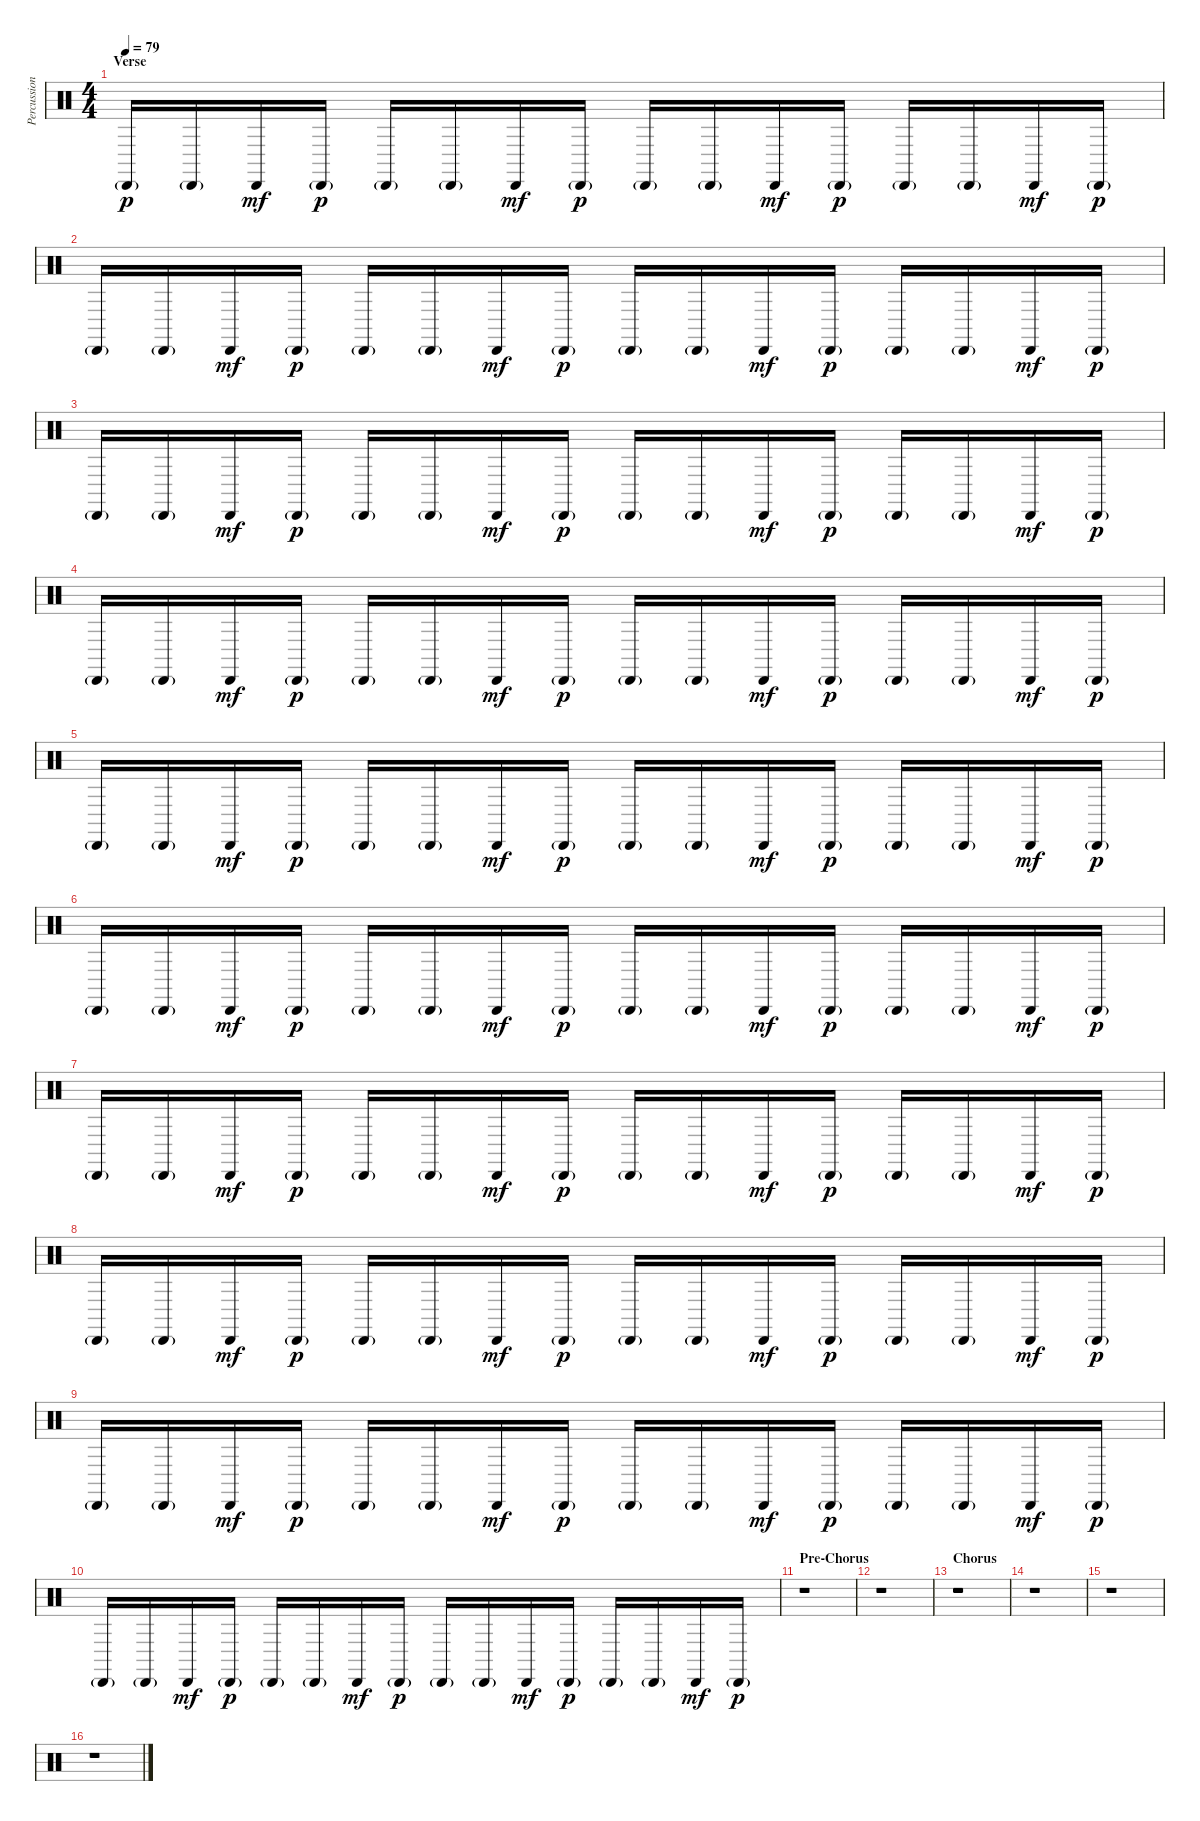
\track ("Percussion Overdubs" "Percussion") {instrument percussion}
\staff {score}
\articulation defaults
\ts (4 4)
\section ("" "Verse")
\tempo 79
\clef neutral
\ks c "Cabasa (hit)"{g}.16{dy p} "Cabasa (hit)"{g}.16 "Cabasa (hit)".16{dy mf} "Cabasa (hit)"{g}.16{dy p} "Cabasa (hit)"{g}.16 "Cabasa (hit)"{g}.16 "Cabasa (hit)".16{dy mf} "Cabasa (hit)"{g}.16{dy p} "Cabasa (hit)"{g}.16 "Cabasa (hit)"{g}.16 "Cabasa (hit)".16{dy mf} "Cabasa (hit)"{g}.16{dy p} "Cabasa (hit)"{g}.16 "Cabasa (hit)"{g}.16 "Cabasa (hit)".16{dy mf} "Cabasa (hit)"{g}.16{dy p}
|
"Cabasa (hit)"{g}.16 "Cabasa (hit)"{g}.16 "Cabasa (hit)".16{dy mf} "Cabasa (hit)"{g}.16{dy p} "Cabasa (hit)"{g}.16 "Cabasa (hit)"{g}.16 "Cabasa (hit)".16{dy mf} "Cabasa (hit)"{g}.16{dy p} "Cabasa (hit)"{g}.16 "Cabasa (hit)"{g}.16 "Cabasa (hit)".16{dy mf} "Cabasa (hit)"{g}.16{dy p} "Cabasa (hit)"{g}.16 "Cabasa (hit)"{g}.16 "Cabasa (hit)".16{dy mf} "Cabasa (hit)"{g}.16{dy p} |
"Cabasa (hit)"{g}.16 "Cabasa (hit)"{g}.16 "Cabasa (hit)".16{dy mf} "Cabasa (hit)"{g}.16{dy p} "Cabasa (hit)"{g}.16 "Cabasa (hit)"{g}.16 "Cabasa (hit)".16{dy mf} "Cabasa (hit)"{g}.16{dy p} "Cabasa (hit)"{g}.16 "Cabasa (hit)"{g}.16 "Cabasa (hit)".16{dy mf} "Cabasa (hit)"{g}.16{dy p} "Cabasa (hit)"{g}.16 "Cabasa (hit)"{g}.16 "Cabasa (hit)".16{dy mf} "Cabasa (hit)"{g}.16{dy p} |
"Cabasa (hit)"{g}.16 "Cabasa (hit)"{g}.16 "Cabasa (hit)".16{dy mf} "Cabasa (hit)"{g}.16{dy p} "Cabasa (hit)"{g}.16 "Cabasa (hit)"{g}.16 "Cabasa (hit)".16{dy mf} "Cabasa (hit)"{g}.16{dy p} "Cabasa (hit)"{g}.16 "Cabasa (hit)"{g}.16 "Cabasa (hit)".16{dy mf} "Cabasa (hit)"{g}.16{dy p} "Cabasa (hit)"{g}.16 "Cabasa (hit)"{g}.16 "Cabasa (hit)".16{dy mf} "Cabasa (hit)"{g}.16{dy p} |
"Cabasa (hit)"{g}.16 "Cabasa (hit)"{g}.16 "Cabasa (hit)".16{dy mf} "Cabasa (hit)"{g}.16{dy p} "Cabasa (hit)"{g}.16 "Cabasa (hit)"{g}.16 "Cabasa (hit)".16{dy mf} "Cabasa (hit)"{g}.16{dy p} "Cabasa (hit)"{g}.16 "Cabasa (hit)"{g}.16 "Cabasa (hit)".16{dy mf} "Cabasa (hit)"{g}.16{dy p} "Cabasa (hit)"{g}.16 "Cabasa (hit)"{g}.16 "Cabasa (hit)".16{dy mf} "Cabasa (hit)"{g}.16{dy p} |
"Cabasa (hit)"{g}.16 "Cabasa (hit)"{g}.16 "Cabasa (hit)".16{dy mf} "Cabasa (hit)"{g}.16{dy p} "Cabasa (hit)"{g}.16 "Cabasa (hit)"{g}.16 "Cabasa (hit)".16{dy mf} "Cabasa (hit)"{g}.16{dy p} "Cabasa (hit)"{g}.16 "Cabasa (hit)"{g}.16 "Cabasa (hit)".16{dy mf} "Cabasa (hit)"{g}.16{dy p} "Cabasa (hit)"{g}.16 "Cabasa (hit)"{g}.16 "Cabasa (hit)".16{dy mf} "Cabasa (hit)"{g}.16{dy p} |
"Cabasa (hit)"{g}.16 "Cabasa (hit)"{g}.16 "Cabasa (hit)".16{dy mf} "Cabasa (hit)"{g}.16{dy p} "Cabasa (hit)"{g}.16 "Cabasa (hit)"{g}.16 "Cabasa (hit)".16{dy mf} "Cabasa (hit)"{g}.16{dy p} "Cabasa (hit)"{g}.16 "Cabasa (hit)"{g}.16 "Cabasa (hit)".16{dy mf} "Cabasa (hit)"{g}.16{dy p} "Cabasa (hit)"{g}.16 "Cabasa (hit)"{g}.16 "Cabasa (hit)".16{dy mf} "Cabasa (hit)"{g}.16{dy p} |
"Cabasa (hit)"{g}.16 "Cabasa (hit)"{g}.16 "Cabasa (hit)".16{dy mf} "Cabasa (hit)"{g}.16{dy p} "Cabasa (hit)"{g}.16 "Cabasa (hit)"{g}.16 "Cabasa (hit)".16{dy mf} "Cabasa (hit)"{g}.16{dy p} "Cabasa (hit)"{g}.16 "Cabasa (hit)"{g}.16 "Cabasa (hit)".16{dy mf} "Cabasa (hit)"{g}.16{dy p} "Cabasa (hit)"{g}.16 "Cabasa (hit)"{g}.16 "Cabasa (hit)".16{dy mf} "Cabasa (hit)"{g}.16{dy p} |
"Cabasa (hit)"{g}.16 "Cabasa (hit)"{g}.16 "Cabasa (hit)".16{dy mf} "Cabasa (hit)"{g}.16{dy p} "Cabasa (hit)"{g}.16 "Cabasa (hit)"{g}.16 "Cabasa (hit)".16{dy mf} "Cabasa (hit)"{g}.16{dy p} "Cabasa (hit)"{g}.16 "Cabasa (hit)"{g}.16 "Cabasa (hit)".16{dy mf} "Cabasa (hit)"{g}.16{dy p} "Cabasa (hit)"{g}.16 "Cabasa (hit)"{g}.16 "Cabasa (hit)".16{dy mf} "Cabasa (hit)"{g}.16{dy p} |
"Cabasa (hit)"{g}.16 "Cabasa (hit)"{g}.16 "Cabasa (hit)".16{dy mf} "Cabasa (hit)"{g}.16{dy p} "Cabasa (hit)"{g}.16 "Cabasa (hit)"{g}.16 "Cabasa (hit)".16{dy mf} "Cabasa (hit)"{g}.16{dy p} "Cabasa (hit)"{g}.16 "Cabasa (hit)"{g}.16 "Cabasa (hit)".16{dy mf} "Cabasa (hit)"{g}.16{dy p} "Cabasa (hit)"{g}.16 "Cabasa (hit)"{g}.16 "Cabasa (hit)".16{dy mf} "Cabasa (hit)"{g}.16{dy p} |
\section ("" "Pre-Chorus")
r.1 |
r.1 |
\section ("" "Chorus")
r.1 |
r.1 |
r.1 |
r.1
